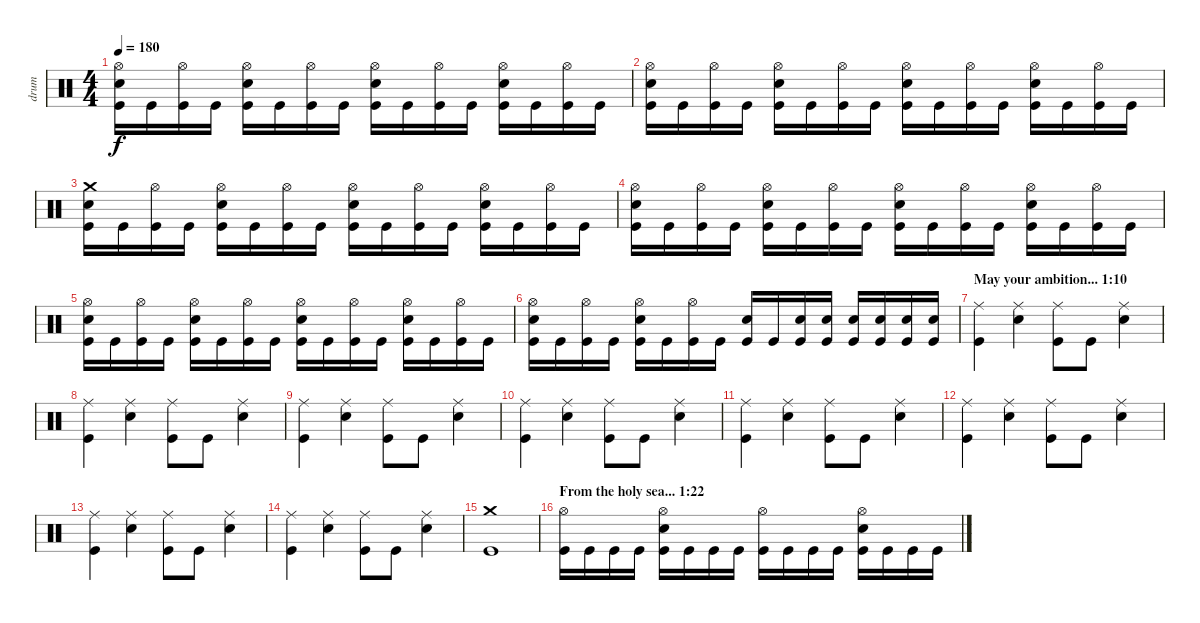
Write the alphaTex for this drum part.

\track ("drum" "drum") {instrument percussion}
\staff {score}
\articulation defaults
\ts (4 4)
\tempo 180
\clef neutral
\ks c
("Hi-Hat (open)" "Snare (hit) 2" "Kick (hit)").16{dy f} "Kick (hit)".16 ("Hi-Hat (open)" "Kick (hit)").16 "Kick (hit)".16 ("Hi-Hat (open)" "Snare (hit) 2" "Kick (hit)").16 "Kick (hit)".16 ("Hi-Hat (open)" "Kick (hit)").16 "Kick (hit)".16 ("Hi-Hat (open)" "Snare (hit) 2" "Kick (hit)").16 "Kick (hit)".16 ("Hi-Hat (open)" "Kick (hit)").16 "Kick (hit)".16 ("Hi-Hat (open)" "Snare (hit) 2" "Kick (hit)").16 "Kick (hit)".16 ("Hi-Hat (open)" "Kick (hit)").16 "Kick (hit)".16 |
("Hi-Hat (open)" "Snare (hit) 2" "Kick (hit)").16 "Kick (hit)".16 ("Hi-Hat (open)" "Kick (hit)").16 "Kick (hit)".16 ("Hi-Hat (open)" "Snare (hit) 2" "Kick (hit)").16 "Kick (hit)".16 ("Hi-Hat (open)" "Kick (hit)").16 "Kick (hit)".16 ("Hi-Hat (open)" "Snare (hit) 2" "Kick (hit)").16 "Kick (hit)".16 ("Hi-Hat (open)" "Kick (hit)").16 "Kick (hit)".16 ("Hi-Hat (open)" "Snare (hit) 2" "Kick (hit)").16 "Kick (hit)".16 ("Hi-Hat (open)" "Kick (hit)").16 "Kick (hit)".16 |
("Crash medium (hit)" "Snare (hit) 2" "Kick (hit)").16 "Kick (hit)".16 ("Hi-Hat (open)" "Kick (hit)").16 "Kick (hit)".16 ("Hi-Hat (open)" "Snare (hit) 2" "Kick (hit)").16 "Kick (hit)".16 ("Hi-Hat (open)" "Kick (hit)").16 "Kick (hit)".16 ("Hi-Hat (open)" "Snare (hit) 2" "Kick (hit)").16 "Kick (hit)".16 ("Hi-Hat (open)" "Kick (hit)").16 "Kick (hit)".16 ("Hi-Hat (open)" "Snare (hit) 2" "Kick (hit)").16 "Kick (hit)".16 ("Hi-Hat (open)" "Kick (hit)").16 "Kick (hit)".16 |
("Hi-Hat (open)" "Snare (hit) 2" "Kick (hit)").16 "Kick (hit)".16 ("Hi-Hat (open)" "Kick (hit)").16 "Kick (hit)".16 ("Hi-Hat (open)" "Snare (hit) 2" "Kick (hit)").16 "Kick (hit)".16 ("Hi-Hat (open)" "Kick (hit)").16 "Kick (hit)".16 ("Hi-Hat (open)" "Snare (hit) 2" "Kick (hit)").16 "Kick (hit)".16 ("Hi-Hat (open)" "Kick (hit)").16 "Kick (hit)".16 ("Hi-Hat (open)" "Snare (hit) 2" "Kick (hit)").16 "Kick (hit)".16 ("Hi-Hat (open)" "Kick (hit)").16 "Kick (hit)".16 |
("Hi-Hat (open)" "Snare (hit) 2" "Kick (hit)").16 "Kick (hit)".16 ("Hi-Hat (open)" "Kick (hit)").16 "Kick (hit)".16 ("Hi-Hat (open)" "Snare (hit) 2" "Kick (hit)").16 "Kick (hit)".16 ("Hi-Hat (open)" "Kick (hit)").16 "Kick (hit)".16 ("Hi-Hat (open)" "Snare (hit) 2" "Kick (hit)").16 "Kick (hit)".16 ("Hi-Hat (open)" "Kick (hit)").16 "Kick (hit)".16 ("Hi-Hat (open)" "Snare (hit) 2" "Kick (hit)").16 "Kick (hit)".16 ("Hi-Hat (open)" "Kick (hit)").16 "Kick (hit)".16 |
("Hi-Hat (open)" "Snare (hit) 2" "Kick (hit)").16 "Kick (hit)".16 ("Hi-Hat (open)" "Kick (hit)").16 "Kick (hit)".16 ("Hi-Hat (open)" "Snare (hit) 2" "Kick (hit)").16 "Kick (hit)".16 ("Hi-Hat (open)" "Kick (hit)").16 "Kick (hit)".16 ("Snare (hit) 2" "Kick (hit)").16 "Kick (hit)".16 ("Snare (hit) 2" "Kick (hit)").16 ("Snare (hit) 2" "Kick (hit)").16 ("Snare (hit) 2" "Kick (hit)").16 ("Snare (hit) 2" "Kick (hit)").16 ("Snare (hit) 2" "Kick (hit)").16 ("Snare (hit) 2" "Kick (hit)").16 |
\section ("" "May your ambition... 1:10")
("Ride (middle)" "Kick (hit)").4 ("Ride (middle)" "Snare (hit) 2").4 ("Ride (middle)" "Kick (hit)").8 "Kick (hit)".8 ("Ride (middle)" "Snare (hit) 2").4 |
("Ride (middle)" "Kick (hit)").4 ("Ride (middle)" "Snare (hit) 2").4 ("Ride (middle)" "Kick (hit)").8 "Kick (hit)".8 ("Ride (middle)" "Snare (hit) 2").4 |
("Ride (middle)" "Kick (hit)").4 ("Ride (middle)" "Snare (hit) 2").4 ("Ride (middle)" "Kick (hit)").8 "Kick (hit)".8 ("Ride (middle)" "Snare (hit) 2").4 |
("Ride (middle)" "Kick (hit)").4 ("Ride (middle)" "Snare (hit) 2").4 ("Ride (middle)" "Kick (hit)").8 "Kick (hit)".8 ("Ride (middle)" "Snare (hit) 2").4 |
("Ride (middle)" "Kick (hit)").4 ("Ride (middle)" "Snare (hit) 2").4 ("Ride (middle)" "Kick (hit)").8 "Kick (hit)".8 ("Ride (middle)" "Snare (hit) 2").4 |
("Ride (middle)" "Kick (hit)").4 ("Ride (middle)" "Snare (hit) 2").4 ("Ride (middle)" "Kick (hit)").8 "Kick (hit)".8 ("Ride (middle)" "Snare (hit) 2").4 |
("Ride (middle)" "Kick (hit)").4 ("Ride (middle)" "Snare (hit) 2").4 ("Ride (middle)" "Kick (hit)").8 "Kick (hit)".8 ("Ride (middle)" "Snare (hit) 2").4 |
("Ride (middle)" "Kick (hit)").4 ("Ride (middle)" "Snare (hit) 2").4 ("Ride (middle)" "Kick (hit)").8 "Kick (hit)".8 ("Ride (middle)" "Snare (hit) 2").4 |
("Crash medium (hit)" "Kick (hit)").1 |
\section ("" "From the holy sea... 1:22")
("Hi-Hat (open)" "Kick (hit)").16 "Kick (hit)".16 "Kick (hit)".16 "Kick (hit)".16 ("Hi-Hat (open)" "Snare (hit) 2" "Kick (hit)").16 "Kick (hit)".16 "Kick (hit)".16 "Kick (hit)".16 ("Hi-Hat (open)" "Kick (hit)").16 "Kick (hit)".16 "Kick (hit)".16 "Kick (hit)".16 ("Hi-Hat (open)" "Snare (hit) 2" "Kick (hit)").16 "Kick (hit)".16 "Kick (hit)".16 "Kick (hit)".16
